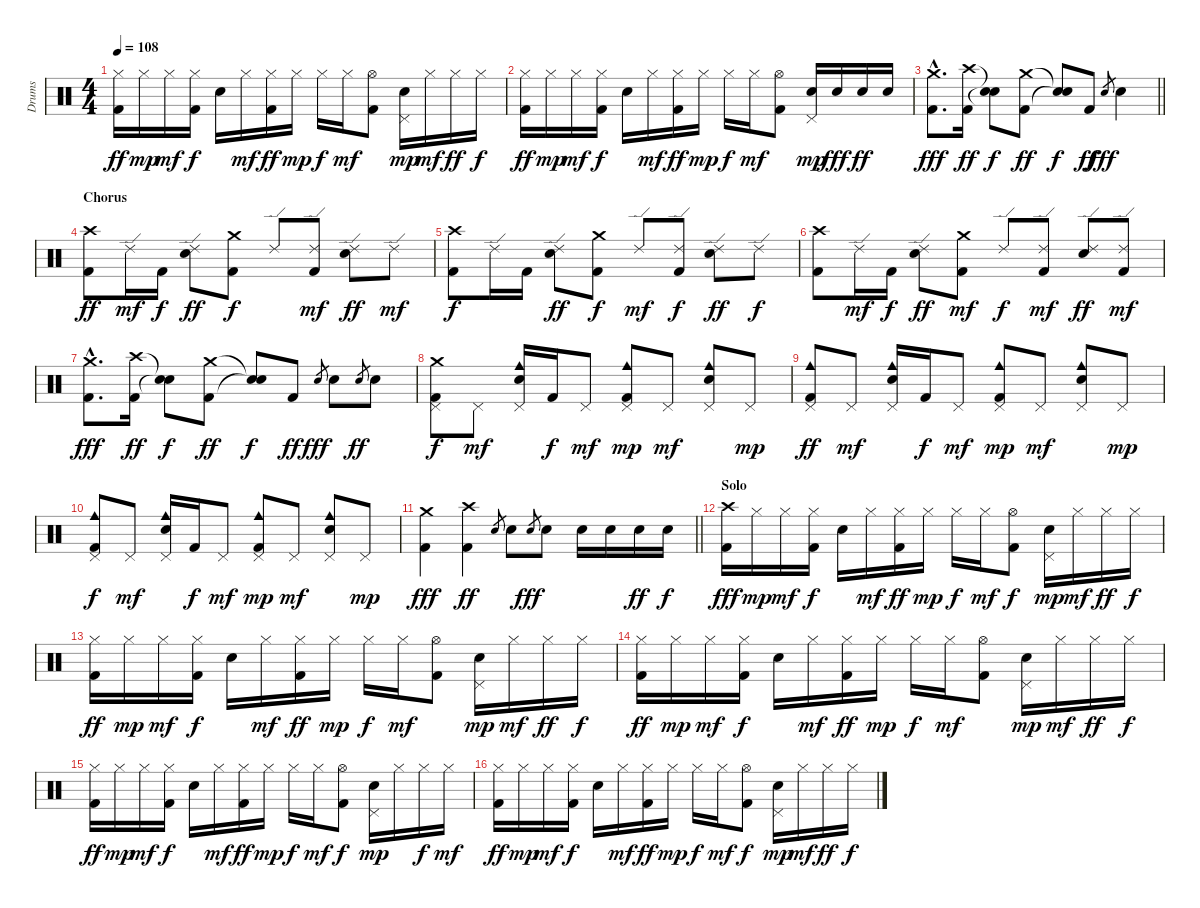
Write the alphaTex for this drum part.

\track ("Drums" "Drums") {instrument percussion}
\staff {score}
\articulation defaults
\ts (4 4)
\tempo 108
\clef neutral
\ks c
("Hi-Hat (closed)" "Kick (hit) 2").16{dy ff} "Hi-Hat (closed)".16{dy mp} "Hi-Hat (closed)".16{dy mf} ("Hi-Hat (closed)" "Kick (hit) 2").16{dy f} "Electric Snare (hit)".16 "Hi-Hat (closed)".16{dy mf} ("Hi-Hat (closed)" "Kick (hit) 2").16{dy ff} "Hi-Hat (closed)".16{dy mp} "Hi-Hat (closed)".16{dy f} "Hi-Hat (closed)".16{dy mf} ("Hi-Hat (open)" "Kick (hit) 2").8 ("Electric Snare (hit)" "Pedal Hi-Hat (hit)").16{dy mp} "Hi-Hat (closed)".16{dy mf} "Hi-Hat (closed)".16{dy ff} "Hi-Hat (closed)".16{dy f} |
("Hi-Hat (closed)" "Kick (hit) 2").16{dy ff} "Hi-Hat (closed)".16{dy mp} "Hi-Hat (closed)".16{dy mf} ("Hi-Hat (closed)" "Kick (hit) 2").16{dy f} "Electric Snare (hit)".16 "Hi-Hat (closed)".16{dy mf} ("Hi-Hat (closed)" "Kick (hit) 2").16{dy ff} "Hi-Hat (closed)".16{dy mp} "Hi-Hat (closed)".16{dy f} "Hi-Hat (closed)".16{dy mf} ("Hi-Hat (open)" "Kick (hit) 2").8 ("Electric Snare (hit)" "Pedal Hi-Hat (hit)").16{dy mp} "Electric Snare (hit)".16{dy fff} "Electric Snare (hit)".16{dy ff} "Electric Snare (hit)".16 |
\barLineRight lightlight
("Crash medium (hit)"{hac} "Kick (hit) 2"{hac}).8{d dy fff} ("Crash high (hit)" "Kick (hit) 2").16{dy ff} ("Snare (hit)"{t} "Snare (hit)"{t}).8{dy f} ("Crash medium (hit)" "Kick (hit) 2").8{dy ff} ("Snare (hit)"{t} "Snare (hit)"{t}).8{dy f} "Kick (hit) 2".8{dy ff} "Electric Snare (hit)".8{gr dy fff} "Electric Snare (hit)".4 |
\section ("" "Chorus")
("Crash high (hit)" "Kick (hit) 2").8{dy ff} "Ride (edge) 2".16{dy mf} "Kick (hit) 2".16{dy f} ("Ride (edge) 2" "Electric Snare (hit)").8{dy ff} ("Crash medium (hit)" "Kick (hit) 2").8{dy f} "Ride (edge) 2".8 ("Ride (edge) 2" "Kick (hit) 2").8{dy mf} ("Ride (edge) 2" "Electric Snare (hit)").8{dy ff} "Ride (edge) 2".8{dy mf} |
("Crash high (hit)" "Kick (hit) 2").8{dy f} "Ride (edge) 2".16 "Kick (hit) 2".16 ("Ride (edge) 2" "Electric Snare (hit)").8{dy ff} ("Crash medium (hit)" "Kick (hit) 2").8{dy f} "Ride (edge) 2".8{dy mf} ("Ride (edge) 2" "Kick (hit) 2").8{dy f} ("Ride (edge) 2" "Electric Snare (hit)").8{dy ff} "Ride (edge) 2".8{dy f} |
("Crash high (hit)" "Kick (hit) 2").8 "Ride (edge) 2".16{dy mf} "Kick (hit) 2".16{dy f} ("Ride (edge) 2" "Electric Snare (hit)").8{dy ff} ("Crash medium (hit)" "Kick (hit) 2").8{dy mf} "Ride (edge) 2".8{dy f} ("Ride (edge) 2" "Kick (hit) 2").8{dy mf} ("Ride (edge) 2" "Electric Snare (hit)").8{dy ff} ("Ride (edge) 2" "Kick (hit) 2").8{dy mf} |
("Crash medium (hit)"{hac} "Kick (hit) 2"{hac}).8{d dy fff} ("Crash high (hit)" "Kick (hit) 2").16{dy ff} ("Snare (hit)"{t} "Snare (hit)"{t}).8{dy f} ("Crash medium (hit)" "Kick (hit) 2").8{dy ff} ("Snare (hit)"{t} "Snare (hit)"{t}).8{dy f} "Kick (hit) 2".8{dy ff} "Electric Snare (hit)".8{gr dy fff} "Electric Snare (hit)".8 "Electric Snare (hit)"{sl}.8{gr dy ff} "Electric Snare (hit)".8 |
("Crash medium (hit)" "Pedal Hi-Hat (hit)" "Kick (hit) 2").8{dy f} "Pedal Hi-Hat (hit)".8{dy mf} ("Cowbell medium (hit)" "Electric Snare (hit)" "Pedal Hi-Hat (hit)").16 "Kick (hit) 2".16{dy f} "Pedal Hi-Hat (hit)".8{dy mf} ("Cowbell medium (hit)" "Pedal Hi-Hat (hit)" "Kick (hit) 2").8{dy mp} "Pedal Hi-Hat (hit)".8{dy mf} ("Cowbell medium (hit)" "Electric Snare (hit)" "Pedal Hi-Hat (hit)").8 "Pedal Hi-Hat (hit)".8{dy mp} |
("Cowbell medium (hit)" "Pedal Hi-Hat (hit)" "Kick (hit) 2").8{dy ff} "Pedal Hi-Hat (hit)".8{dy mf} ("Cowbell medium (hit)" "Electric Snare (hit)" "Pedal Hi-Hat (hit)").16 "Kick (hit) 2".16{dy f} "Pedal Hi-Hat (hit)".8{dy mf} ("Cowbell medium (hit)" "Pedal Hi-Hat (hit)" "Kick (hit) 2").8{dy mp} "Pedal Hi-Hat (hit)".8{dy mf} ("Cowbell medium (hit)" "Electric Snare (hit)" "Pedal Hi-Hat (hit)").8 "Pedal Hi-Hat (hit)".8{dy mp} |
("Cowbell medium (hit)" "Pedal Hi-Hat (hit)" "Kick (hit) 2").8{dy f} "Pedal Hi-Hat (hit)".8{dy mf} ("Cowbell medium (hit)" "Electric Snare (hit)" "Pedal Hi-Hat (hit)").16 "Kick (hit) 2".16{dy f} "Pedal Hi-Hat (hit)".8{dy mf} ("Cowbell medium (hit)" "Pedal Hi-Hat (hit)" "Kick (hit) 2").8{dy mp} "Pedal Hi-Hat (hit)".8{dy mf} ("Cowbell medium (hit)" "Electric Snare (hit)" "Pedal Hi-Hat (hit)").8 "Pedal Hi-Hat (hit)".8{dy mp} |
\barLineRight lightlight
("Crash medium (hit)" "Kick (hit) 2").4{dy fff} ("Crash high (hit)" "Kick (hit) 2").4{dy ff} "Electric Snare (hit)"{sl}.8{gr} "Electric Snare (hit)".8 "Electric Snare (hit)"{h}.8{gr dy fff} "Electric Snare (hit)".8 "Electric Snare (hit)".16 "Electric Snare (hit)".16 "Electric Snare (hit)".16{dy ff} "Electric Snare (hit)".16{dy f} |
\section ("" "Solo")
("Crash high (hit)" "Kick (hit) 2").16{dy fff} "Hi-Hat (closed)".16{dy mp} "Hi-Hat (closed)".16{dy mf} ("Hi-Hat (closed)" "Kick (hit) 2").16{dy f} "Electric Snare (hit)".16 "Hi-Hat (closed)".16{dy mf} ("Hi-Hat (closed)" "Kick (hit) 2").16{dy ff} "Hi-Hat (closed)".16{dy mp} "Hi-Hat (closed)".16{dy f} "Hi-Hat (closed)".16{dy mf} ("Hi-Hat (open)" "Kick (hit) 2").8{dy f} ("Electric Snare (hit)" "Pedal Hi-Hat (hit)").16{dy mp} "Hi-Hat (closed)".16{dy mf} "Hi-Hat (closed)".16{dy ff} "Hi-Hat (closed)".16{dy f} |
("Hi-Hat (closed)" "Kick (hit) 2").16{dy ff} "Hi-Hat (closed)".16{dy mp} "Hi-Hat (closed)".16{dy mf} ("Hi-Hat (closed)" "Kick (hit) 2").16{dy f} "Electric Snare (hit)".16 "Hi-Hat (closed)".16{dy mf} ("Hi-Hat (closed)" "Kick (hit) 2").16{dy ff} "Hi-Hat (closed)".16{dy mp} "Hi-Hat (closed)".16{dy f} "Hi-Hat (closed)".16{dy mf} ("Hi-Hat (open)" "Kick (hit) 2").8 ("Electric Snare (hit)" "Pedal Hi-Hat (hit)").16{dy mp} "Hi-Hat (closed)".16{dy mf} "Hi-Hat (closed)".16{dy ff} "Hi-Hat (closed)".16{dy f} |
("Hi-Hat (closed)" "Kick (hit) 2").16{dy ff} "Hi-Hat (closed)".16{dy mp} "Hi-Hat (closed)".16{dy mf} ("Hi-Hat (closed)" "Kick (hit) 2").16{dy f} "Electric Snare (hit)".16 "Hi-Hat (closed)".16{dy mf} ("Hi-Hat (closed)" "Kick (hit) 2").16{dy ff} "Hi-Hat (closed)".16{dy mp} "Hi-Hat (closed)".16{dy f} "Hi-Hat (closed)".16{dy mf} ("Hi-Hat (open)" "Kick (hit) 2").8 ("Electric Snare (hit)" "Pedal Hi-Hat (hit)").16{dy mp} "Hi-Hat (closed)".16{dy mf} "Hi-Hat (closed)".16{dy ff} "Hi-Hat (closed)".16{dy f} |
("Hi-Hat (closed)" "Kick (hit) 2").16{dy ff} "Hi-Hat (closed)".16{dy mp} "Hi-Hat (closed)".16{dy mf} ("Hi-Hat (closed)" "Kick (hit) 2").16{dy f} "Electric Snare (hit)".16 "Hi-Hat (closed)".16{dy mf} ("Hi-Hat (closed)" "Kick (hit) 2").16{dy ff} "Hi-Hat (closed)".16{dy mp} "Hi-Hat (closed)".16{dy f} "Hi-Hat (closed)".16{dy mf} ("Hi-Hat (open)" "Kick (hit) 2").8{dy f} ("Electric Snare (hit)" "Pedal Hi-Hat (hit)").16{dy mp} "Hi-Hat (closed)".16 "Hi-Hat (closed)".16{dy f} "Hi-Hat (closed)".16{dy mf} |
("Hi-Hat (closed)" "Kick (hit) 2").16{dy ff} "Hi-Hat (closed)".16{dy mp} "Hi-Hat (closed)".16{dy mf} ("Hi-Hat (closed)" "Kick (hit) 2").16{dy f} "Electric Snare (hit)".16 "Hi-Hat (closed)".16{dy mf} ("Hi-Hat (closed)" "Kick (hit) 2").16{dy ff} "Hi-Hat (closed)".16{dy mp} "Hi-Hat (closed)".16{dy f} "Hi-Hat (closed)".16{dy mf} ("Hi-Hat (open)" "Kick (hit) 2").8{dy f} ("Electric Snare (hit)" "Pedal Hi-Hat (hit)").16{dy mp} "Hi-Hat (closed)".16{dy mf} "Hi-Hat (closed)".16{dy ff} "Hi-Hat (closed)".16{dy f}
